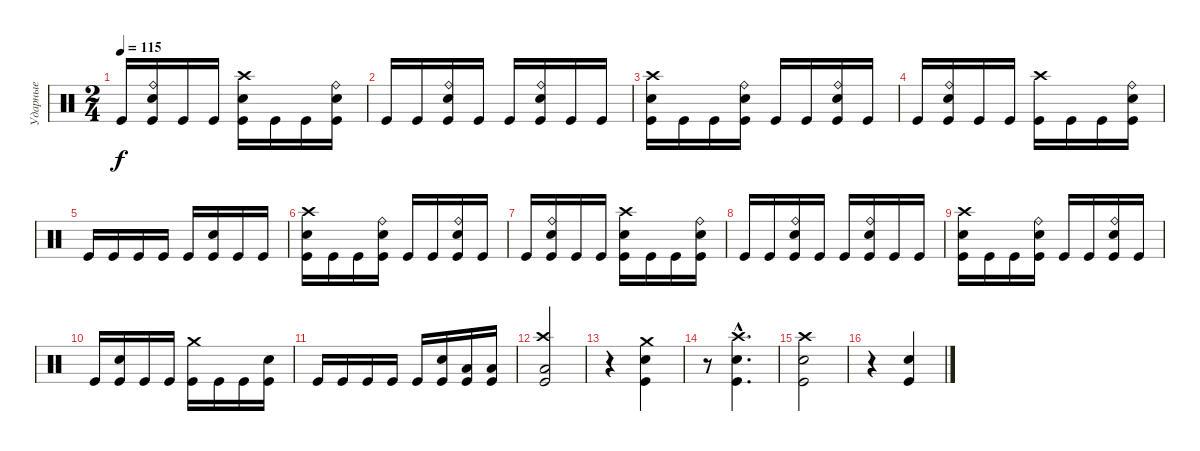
\track ("Ударные" "Ударные") {instrument percussion}
\staff {score}
\articulation defaults
\ts (2 4)
\tempo 115
\clef neutral
\ks c "Kick (hit)".16{dy f}
("Ride (bell)" "Electric Snare (hit)" "Kick (hit)").16 "Kick (hit)".16 "Kick (hit)".16 ("Crash high (hit)" "Electric Snare (hit)" "Kick (hit)").16 "Kick (hit)".16 "Kick (hit)".16 ("Ride (bell)" "Electric Snare (hit)" "Kick (hit)").16 |
"Kick (hit)".16 "Kick (hit)".16 ("Ride (bell)" "Electric Snare (hit)" "Kick (hit)").16 "Kick (hit)".16 "Kick (hit)".16 ("Ride (bell)" "Electric Snare (hit)" "Kick (hit)").16 "Kick (hit)".16 "Kick (hit)".16 |
("Crash high (hit)" "Electric Snare (hit)" "Kick (hit)").16 "Kick (hit)".16 "Kick (hit)".16 ("Ride (bell)" "Electric Snare (hit)" "Kick (hit)").16 "Kick (hit)".16 "Kick (hit)".16 ("Ride (bell)" "Electric Snare (hit)" "Kick (hit)").16 "Kick (hit)".16 |
"Kick (hit)".16 ("Ride (bell)" "Electric Snare (hit)" "Kick (hit)").16 "Kick (hit)".16 "Kick (hit)".16 ("Crash high (hit)" "Kick (hit)").16 "Kick (hit)".16 "Kick (hit)".16 ("Ride (bell)" "Electric Snare (hit)" "Kick (hit)").16 |
"Kick (hit)".16 "Kick (hit)".16 "Kick (hit)".16 "Kick (hit)".16 "Kick (hit)".16 ("Electric Snare (hit)" "Kick (hit)").16 "Kick (hit)".16 "Kick (hit)".16 |
("Crash high (hit)" "Electric Snare (hit)" "Kick (hit)").16 "Kick (hit)".16 "Kick (hit)".16 ("Ride (bell)" "Electric Snare (hit)" "Kick (hit)").16 "Kick (hit)".16 "Kick (hit)".16 ("Ride (bell)" "Electric Snare (hit)" "Kick (hit)").16 "Kick (hit)".16 |
"Kick (hit)".16 ("Ride (bell)" "Electric Snare (hit)" "Kick (hit)").16 "Kick (hit)".16 "Kick (hit)".16 ("Crash high (hit)" "Electric Snare (hit)" "Kick (hit)").16 "Kick (hit)".16 "Kick (hit)".16 ("Ride (bell)" "Electric Snare (hit)" "Kick (hit)").16 |
"Kick (hit)".16 "Kick (hit)".16 ("Ride (bell)" "Electric Snare (hit)" "Kick (hit)").16 "Kick (hit)".16 "Kick (hit)".16 ("Ride (bell)" "Electric Snare (hit)" "Kick (hit)").16 "Kick (hit)".16 "Kick (hit)".16 |
("Crash high (hit)" "Electric Snare (hit)" "Kick (hit)").16 "Kick (hit)".16 "Kick (hit)".16 ("Ride (bell)" "Electric Snare (hit)" "Kick (hit)").16 "Kick (hit)".16 "Kick (hit)".16 ("Ride (bell)" "Electric Snare (hit)" "Kick (hit)").16 "Kick (hit)".16 |
"Kick (hit)".16 ("Electric Snare (hit)" "Kick (hit)").16 "Kick (hit)".16 "Kick (hit)".16 ("Crash medium (hit)" "Kick (hit)").16 "Kick (hit)".16 "Kick (hit)".16 ("Electric Snare (hit)" "Kick (hit)").16 |
"Kick (hit)".16 "Kick (hit)".16 "Kick (hit)".16 "Kick (hit)".16 "Kick (hit)".16 ("Electric Snare (hit)" "Kick (hit)").16 ("Low Tom (hit)" "Kick (hit)").16 ("Low Tom (hit)" "Kick (hit)").16 |
("Crash high (hit)" "Low Tom (hit)" "Kick (hit)").2 |
r.4 ("Crash medium (hit)" "Electric Snare (hit)" "Kick (hit)").4 |
r.8 ("Crash high (hit)"{hac} "Electric Snare (hit)"{hac} "Kick (hit)"{hac}).4{d} |
("Crash high (hit)" "Electric Snare (hit)" "Kick (hit)").2 |
r.4 ("Electric Snare (hit)" "Kick (hit)").4
